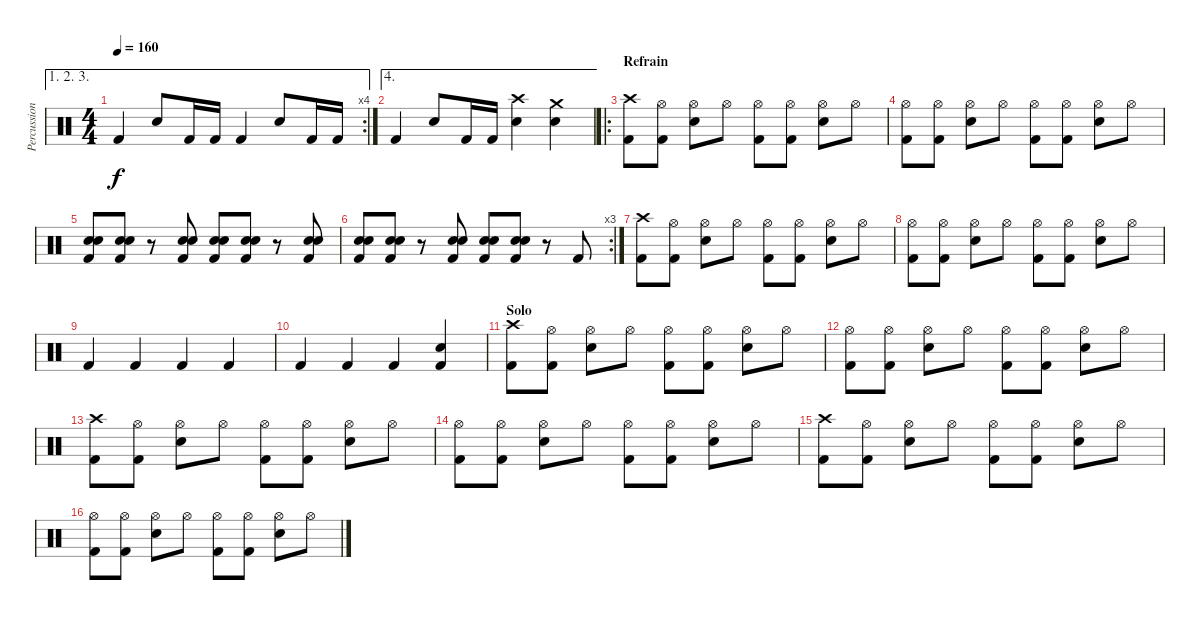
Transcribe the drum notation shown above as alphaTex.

\track ("Percussions" "Percussion") {instrument percussion}
\staff {score}
\articulation defaults
\ae (1 2 3)
\rc 4
\ts (4 4)
\tempo 160
\clef neutral
\ks c "Kick (hit) 2".4{dy f} "Electric Snare (hit)".8 "Kick (hit) 2".16 "Kick (hit) 2".16 "Kick (hit) 2".4 "Electric Snare (hit)".8 "Kick (hit) 2".16 "Kick (hit) 2".16
|
\ae 4 "Kick (hit) 2".4 "Electric Snare (hit)".8 "Kick (hit) 2".16 "Kick (hit) 2".16
("Crash high (hit)" "Electric Snare (hit)").4{volume 12} ("Crash medium (hit)" "Electric Snare (hit)").4 |
\ro
\section ("" "Refrain")
("Crash high (hit)" "Kick (hit) 2").8 ("Hi-Hat (open)" "Kick (hit) 2").8 ("Hi-Hat (open)" "Electric Snare (hit)").8 "Hi-Hat (open)".8 ("Hi-Hat (open)" "Kick (hit) 2").8 ("Hi-Hat (open)" "Kick (hit) 2").8 ("Hi-Hat (open)" "Electric Snare (hit)").8 "Hi-Hat (open)".8 |
("Hi-Hat (open)" "Kick (hit) 2").8 ("Hi-Hat (open)" "Kick (hit) 2").8 ("Hi-Hat (open)" "Electric Snare (hit)").8 "Hi-Hat (open)".8 ("Hi-Hat (open)" "Kick (hit) 2").8 ("Hi-Hat (open)" "Kick (hit) 2").8 ("Hi-Hat (open)" "Electric Snare (hit)").8 "Hi-Hat (open)".8 |
("Electric Snare (hit)" "Electric Snare (hit)" "Kick (hit) 2").8 ("Electric Snare (hit)" "Electric Snare (hit)" "Kick (hit) 2").8 r.8 ("Electric Snare (hit)" "Electric Snare (hit)" "Kick (hit) 2").8 ("Electric Snare (hit)" "Electric Snare (hit)" "Kick (hit) 2").8 ("Electric Snare (hit)" "Electric Snare (hit)" "Kick (hit) 2").8 r.8 ("Electric Snare (hit)" "Electric Snare (hit)" "Kick (hit) 2").8 |
\rc 3
("Electric Snare (hit)" "Electric Snare (hit)" "Kick (hit) 2").8 ("Electric Snare (hit)" "Electric Snare (hit)" "Kick (hit) 2").8 r.8 ("Electric Snare (hit)" "Electric Snare (hit)" "Kick (hit) 2").8 ("Electric Snare (hit)" "Electric Snare (hit)" "Kick (hit) 2").8 ("Electric Snare (hit)" "Electric Snare (hit)" "Kick (hit) 2").8 r.8 "Kick (hit) 2".8 |
("Crash high (hit)" "Kick (hit) 2").8 ("Hi-Hat (open)" "Kick (hit) 2").8 ("Hi-Hat (open)" "Electric Snare (hit)").8 "Hi-Hat (open)".8 ("Hi-Hat (open)" "Kick (hit) 2").8 ("Hi-Hat (open)" "Kick (hit) 2").8 ("Hi-Hat (open)" "Electric Snare (hit)").8 "Hi-Hat (open)".8 |
("Hi-Hat (open)" "Kick (hit) 2").8 ("Hi-Hat (open)" "Kick (hit) 2").8 ("Hi-Hat (open)" "Electric Snare (hit)").8 "Hi-Hat (open)".8 ("Hi-Hat (open)" "Kick (hit) 2").8 ("Hi-Hat (open)" "Kick (hit) 2").8 ("Hi-Hat (open)" "Electric Snare (hit)").8 "Hi-Hat (open)".8 |
"Kick (hit) 2".4 "Kick (hit) 2".4 "Kick (hit) 2".4 "Kick (hit) 2".4 |
"Kick (hit) 2".4 "Kick (hit) 2".4 "Kick (hit) 2".4 ("Electric Snare (hit)" "Kick (hit) 2").4 |
\section ("" "Solo")
("Crash high (hit)" "Kick (hit) 2").8 ("Hi-Hat (open)" "Kick (hit) 2").8 ("Hi-Hat (open)" "Electric Snare (hit)").8 "Hi-Hat (open)".8 ("Hi-Hat (open)" "Kick (hit) 2").8 ("Hi-Hat (open)" "Kick (hit) 2").8 ("Hi-Hat (open)" "Electric Snare (hit)").8 "Hi-Hat (open)".8 |
("Hi-Hat (open)" "Kick (hit) 2").8 ("Hi-Hat (open)" "Kick (hit) 2").8 ("Hi-Hat (open)" "Electric Snare (hit)").8 "Hi-Hat (open)".8 ("Hi-Hat (open)" "Kick (hit) 2").8 ("Hi-Hat (open)" "Kick (hit) 2").8 ("Hi-Hat (open)" "Electric Snare (hit)").8 "Hi-Hat (open)".8 |
("Crash high (hit)" "Kick (hit) 2").8 ("Hi-Hat (open)" "Kick (hit) 2").8 ("Hi-Hat (open)" "Electric Snare (hit)").8 "Hi-Hat (open)".8 ("Hi-Hat (open)" "Kick (hit) 2").8 ("Hi-Hat (open)" "Kick (hit) 2").8 ("Hi-Hat (open)" "Electric Snare (hit)").8 "Hi-Hat (open)".8 |
("Hi-Hat (open)" "Kick (hit) 2").8 ("Hi-Hat (open)" "Kick (hit) 2").8 ("Hi-Hat (open)" "Electric Snare (hit)").8 "Hi-Hat (open)".8 ("Hi-Hat (open)" "Kick (hit) 2").8 ("Hi-Hat (open)" "Kick (hit) 2").8 ("Hi-Hat (open)" "Electric Snare (hit)").8 "Hi-Hat (open)".8 |
("Crash high (hit)" "Kick (hit) 2").8 ("Hi-Hat (open)" "Kick (hit) 2").8 ("Hi-Hat (open)" "Electric Snare (hit)").8 "Hi-Hat (open)".8 ("Hi-Hat (open)" "Kick (hit) 2").8 ("Hi-Hat (open)" "Kick (hit) 2").8 ("Hi-Hat (open)" "Electric Snare (hit)").8 "Hi-Hat (open)".8 |
("Hi-Hat (open)" "Kick (hit) 2").8 ("Hi-Hat (open)" "Kick (hit) 2").8 ("Hi-Hat (open)" "Electric Snare (hit)").8 "Hi-Hat (open)".8 ("Hi-Hat (open)" "Kick (hit) 2").8 ("Hi-Hat (open)" "Kick (hit) 2").8 ("Hi-Hat (open)" "Electric Snare (hit)").8 "Hi-Hat (open)".8
